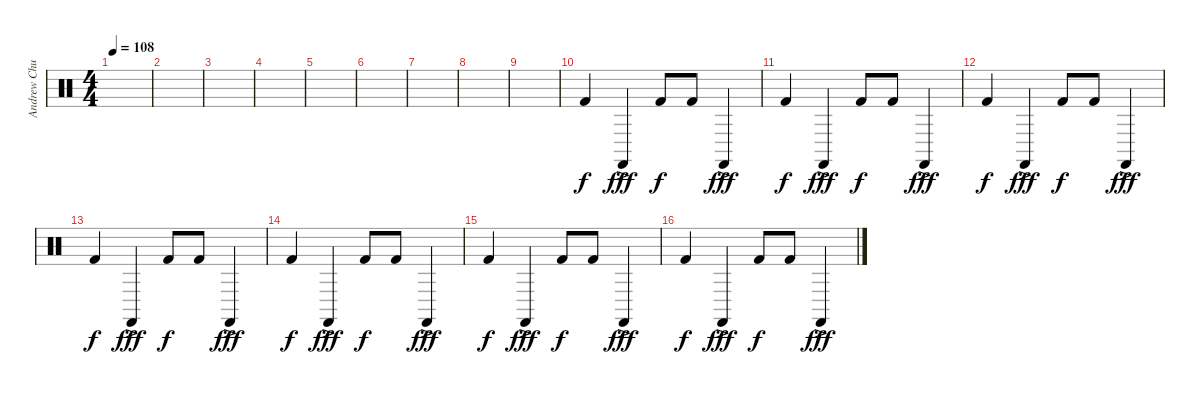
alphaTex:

\track ("Andrew Chudy - Drum" "Andrew Chu") {instrument percussion}
\staff {score}
\articulation defaults
\ts (4 4)
\tempo 108
\clef neutral
\ks c
|
|
|
|
|
|
|
|
|
"Kick (hit) 2".4 "Castanets (hit)"{ac}.4{dy fff} "Kick (hit) 2".8{dy f} "Kick (hit) 2".8 "Castanets (hit)"{ac}.4{dy fff} |
"Kick (hit) 2".4{dy f} "Castanets (hit)"{ac}.4{dy fff} "Kick (hit) 2".8{dy f} "Kick (hit) 2".8 "Castanets (hit)"{ac}.4{dy fff} |
"Kick (hit) 2".4{dy f} "Castanets (hit)"{ac}.4{dy fff} "Kick (hit) 2".8{dy f} "Kick (hit) 2".8 "Castanets (hit)"{ac}.4{dy fff} |
"Kick (hit) 2".4{dy f} "Castanets (hit)"{ac}.4{dy fff} "Kick (hit) 2".8{dy f} "Kick (hit) 2".8 "Castanets (hit)"{ac}.4{dy fff} |
"Kick (hit) 2".4{dy f} "Castanets (hit)"{ac}.4{dy fff} "Kick (hit) 2".8{dy f} "Kick (hit) 2".8 "Castanets (hit)"{ac}.4{dy fff} |
"Kick (hit) 2".4{dy f} "Castanets (hit)"{ac}.4{dy fff} "Kick (hit) 2".8{dy f} "Kick (hit) 2".8 "Castanets (hit)"{ac}.4{dy fff} |
"Kick (hit) 2".4{dy f} "Castanets (hit)"{ac}.4{dy fff} "Kick (hit) 2".8{dy f} "Kick (hit) 2".8 "Castanets (hit)"{ac}.4{dy fff}
